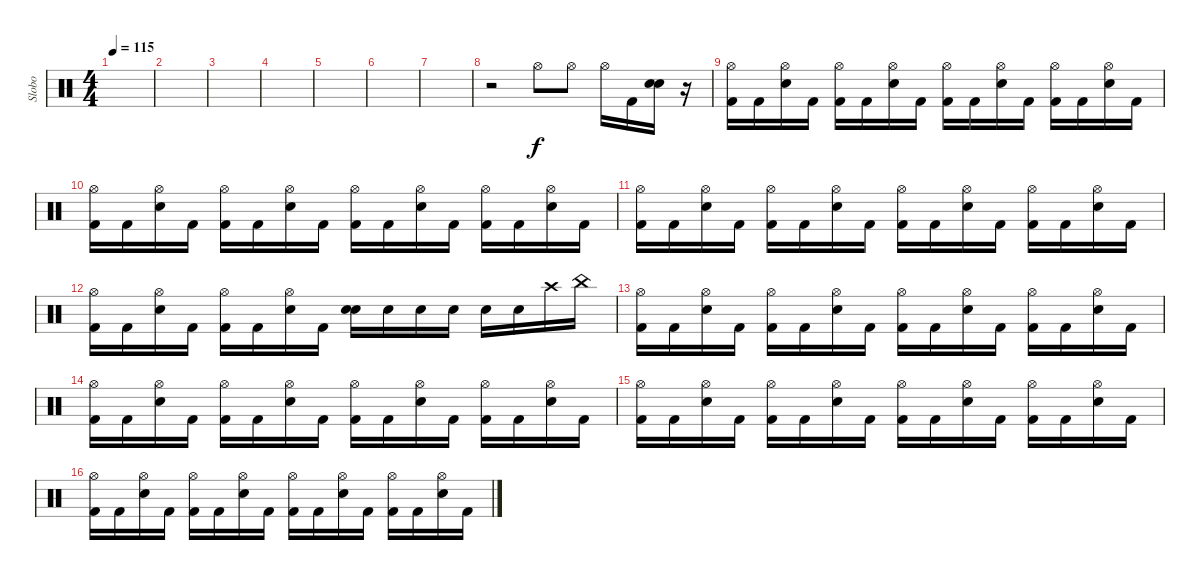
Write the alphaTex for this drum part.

\track ("Slobo" "Slobo") {instrument percussion}
\staff {score}
\articulation defaults
\ts (4 4)
\tempo 115
\clef neutral
\ks c
|
|
|
|
|
|
|
r.2 "Hi-Hat (open)".8 "Hi-Hat (open)".8 "Hi-Hat (open)".16 "Kick (hit) 2".16 ("Snare (hit) 2" "Snare (hit) 2").16{bd 480} r.16 |
("Kick (hit) 2" "Hi-Hat (open)").16 "Kick (hit) 2".16 ("Snare (hit) 2" "Hi-Hat (open)").16 "Kick (hit) 2".16 ("Kick (hit) 2" "Hi-Hat (open)").16 "Kick (hit) 2".16 ("Snare (hit) 2" "Hi-Hat (open)").16 "Kick (hit) 2".16 ("Kick (hit) 2" "Hi-Hat (open)").16 "Kick (hit) 2".16 ("Snare (hit) 2" "Hi-Hat (open)").16 "Kick (hit) 2".16 ("Kick (hit) 2" "Hi-Hat (open)").16 "Kick (hit) 2".16 ("Snare (hit) 2" "Hi-Hat (open)").16 "Kick (hit) 2".16 |
("Kick (hit) 2" "Hi-Hat (open)").16 "Kick (hit) 2".16 ("Snare (hit) 2" "Hi-Hat (open)").16 "Kick (hit) 2".16 ("Kick (hit) 2" "Hi-Hat (open)").16 "Kick (hit) 2".16 ("Snare (hit) 2" "Hi-Hat (open)").16 "Kick (hit) 2".16 ("Kick (hit) 2" "Hi-Hat (open)").16 "Kick (hit) 2".16 ("Snare (hit) 2" "Hi-Hat (open)").16 "Kick (hit) 2".16 ("Kick (hit) 2" "Hi-Hat (open)").16 "Kick (hit) 2".16 ("Snare (hit) 2" "Hi-Hat (open)").16 "Kick (hit) 2".16 |
("Kick (hit) 2" "Hi-Hat (open)").16 "Kick (hit) 2".16 ("Snare (hit) 2" "Hi-Hat (open)").16 "Kick (hit) 2".16 ("Kick (hit) 2" "Hi-Hat (open)").16 "Kick (hit) 2".16 ("Snare (hit) 2" "Hi-Hat (open)").16 "Kick (hit) 2".16 ("Kick (hit) 2" "Hi-Hat (open)").16 "Kick (hit) 2".16 ("Snare (hit) 2" "Hi-Hat (open)").16 "Kick (hit) 2".16 ("Kick (hit) 2" "Hi-Hat (open)").16 "Kick (hit) 2".16 ("Snare (hit) 2" "Hi-Hat (open)").16 "Kick (hit) 2".16 |
("Kick (hit) 2" "Hi-Hat (open)").16 "Kick (hit) 2".16 ("Snare (hit) 2" "Hi-Hat (open)").16 "Kick (hit) 2".16 ("Kick (hit) 2" "Hi-Hat (open)").16 "Kick (hit) 2".16 ("Snare (hit) 2" "Hi-Hat (open)").16 "Kick (hit) 2".16 ("Snare (hit) 2" "Snare (hit) 2").16{bd 480} "Snare (hit) 2".16 "Snare (hit) 2".16 "Snare (hit) 2".16 "Snare (hit) 2".16 "Snare (hit) 2".16 "Crash high (hit)".16 "China (hit)".16 |
("Kick (hit) 2" "Hi-Hat (open)").16 "Kick (hit) 2".16 ("Snare (hit) 2" "Hi-Hat (open)").16 "Kick (hit) 2".16 ("Kick (hit) 2" "Hi-Hat (open)").16 "Kick (hit) 2".16 ("Snare (hit) 2" "Hi-Hat (open)").16 "Kick (hit) 2".16 ("Kick (hit) 2" "Hi-Hat (open)").16 "Kick (hit) 2".16 ("Snare (hit) 2" "Hi-Hat (open)").16 "Kick (hit) 2".16 ("Kick (hit) 2" "Hi-Hat (open)").16 "Kick (hit) 2".16 ("Snare (hit) 2" "Hi-Hat (open)").16 "Kick (hit) 2".16 |
("Kick (hit) 2" "Hi-Hat (open)").16 "Kick (hit) 2".16 ("Snare (hit) 2" "Hi-Hat (open)").16 "Kick (hit) 2".16 ("Kick (hit) 2" "Hi-Hat (open)").16 "Kick (hit) 2".16 ("Snare (hit) 2" "Hi-Hat (open)").16 "Kick (hit) 2".16 ("Kick (hit) 2" "Hi-Hat (open)").16 "Kick (hit) 2".16 ("Snare (hit) 2" "Hi-Hat (open)").16 "Kick (hit) 2".16 ("Kick (hit) 2" "Hi-Hat (open)").16 "Kick (hit) 2".16 ("Snare (hit) 2" "Hi-Hat (open)").16 "Kick (hit) 2".16 |
("Kick (hit) 2" "Hi-Hat (open)").16 "Kick (hit) 2".16 ("Snare (hit) 2" "Hi-Hat (open)").16 "Kick (hit) 2".16 ("Kick (hit) 2" "Hi-Hat (open)").16 "Kick (hit) 2".16 ("Snare (hit) 2" "Hi-Hat (open)").16 "Kick (hit) 2".16 ("Kick (hit) 2" "Hi-Hat (open)").16 "Kick (hit) 2".16 ("Snare (hit) 2" "Hi-Hat (open)").16 "Kick (hit) 2".16 ("Kick (hit) 2" "Hi-Hat (open)").16 "Kick (hit) 2".16 ("Snare (hit) 2" "Hi-Hat (open)").16 "Kick (hit) 2".16 |
("Kick (hit) 2" "Hi-Hat (open)").16 "Kick (hit) 2".16 ("Snare (hit) 2" "Hi-Hat (open)").16 "Kick (hit) 2".16 ("Kick (hit) 2" "Hi-Hat (open)").16 "Kick (hit) 2".16 ("Snare (hit) 2" "Hi-Hat (open)").16 "Kick (hit) 2".16 ("Kick (hit) 2" "Hi-Hat (open)").16 "Kick (hit) 2".16 ("Snare (hit) 2" "Hi-Hat (open)").16 "Kick (hit) 2".16 ("Kick (hit) 2" "Hi-Hat (open)").16 "Kick (hit) 2".16 ("Snare (hit) 2" "Hi-Hat (open)").16 "Kick (hit) 2".16
